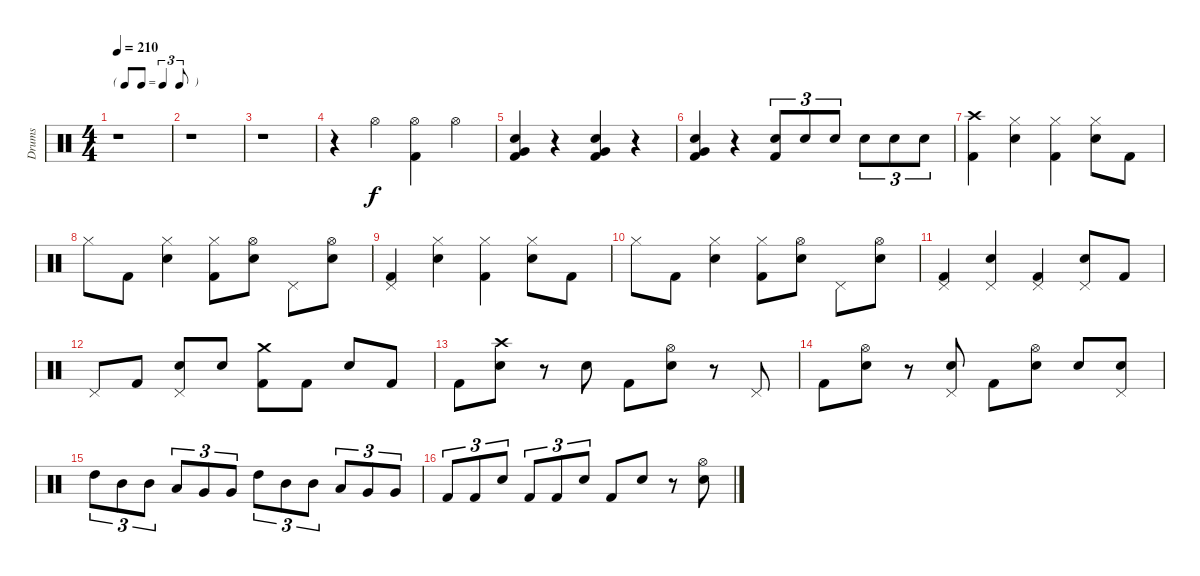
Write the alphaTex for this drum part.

\track ("Drums" "Drums") {instrument percussion}
\staff {score}
\articulation defaults
\ts (4 4)
\tf triplet8th
\tempo 210
\clef neutral
\ks c
r.1{dy f} |
r.1 |
r.1 |
r.4 "Hi-Hat (open)".4 ("Hi-Hat (open)" "Kick (hit) 2").4 "Hi-Hat (open)".4 |
("Snare (hit) 2" "Very Low Tom (hit)" "Kick (hit) 2").4 r.4 ("Snare (hit) 2" "Very Low Tom (hit)" "Kick (hit) 2").4 r.4 |
("Snare (hit) 2" "Very Low Tom (hit)" "Kick (hit) 2").4 r.4 ("Snare (hit) 2" "Kick (hit) 2").8{tu (3 2)} "Snare (hit) 2".8{tu (3 2)} "Snare (hit) 2".8{tu (3 2)} "Snare (hit) 2".8{tu (3 2)} "Snare (hit) 2".8{tu (3 2)} "Snare (hit) 2".8{tu (3 2)} |
("Crash high (hit)" "Kick (hit) 2").4 ("Hi-Hat (closed)" "Snare (hit) 2").4 ("Hi-Hat (closed)" "Kick (hit) 2").4 ("Hi-Hat (closed)" "Snare (hit) 2").8 "Kick (hit) 2".8 |
"Hi-Hat (closed)".8 "Kick (hit) 2".8 ("Hi-Hat (closed)" "Snare (hit) 2").4 ("Hi-Hat (closed)" "Kick (hit) 2").8 ("Hi-Hat (open)" "Snare (hit) 2").8 "Pedal Hi-Hat (hit)".8 ("Hi-Hat (open)" "Snare (hit) 2").8 |
("Pedal Hi-Hat (hit)" "Kick (hit) 2").4 ("Hi-Hat (closed)" "Snare (hit) 2").4 ("Hi-Hat (closed)" "Kick (hit) 2").4 ("Hi-Hat (closed)" "Snare (hit) 2").8 "Kick (hit) 2".8 |
"Hi-Hat (closed)".8 "Kick (hit) 2".8 ("Hi-Hat (closed)" "Snare (hit) 2").4 ("Hi-Hat (closed)" "Kick (hit) 2").8 ("Hi-Hat (open)" "Snare (hit) 2").8 "Pedal Hi-Hat (hit)".8 ("Hi-Hat (open)" "Snare (hit) 2").8 |
("Pedal Hi-Hat (hit)" "Kick (hit) 2").4 ("Pedal Hi-Hat (hit)" "Snare (hit) 2").4 ("Pedal Hi-Hat (hit)" "Kick (hit) 2").4 ("Pedal Hi-Hat (hit)" "Snare (hit) 2").8 "Kick (hit) 2".8 |
"Pedal Hi-Hat (hit)".8 "Kick (hit) 2".8 ("Pedal Hi-Hat (hit)" "Snare (hit) 2").8 "Snare (hit) 2".8 ("Crash medium (hit)" "Kick (hit) 2").8 "Kick (hit) 2".8 "Snare (hit) 2".8 "Kick (hit) 2".8 |
"Kick (hit) 2".8 ("Crash high (hit)" "Snare (hit) 2").8 r.8 "Snare (hit) 2".8 "Kick (hit) 2".8 ("Hi-Hat (open)" "Snare (hit) 2").8 r.8 "Pedal Hi-Hat (hit)".8 |
"Kick (hit) 2".8 ("Hi-Hat (open)" "Snare (hit) 2").8 r.8 ("Pedal Hi-Hat (hit)" "Snare (hit) 2").8 "Kick (hit) 2".8 ("Hi-Hat (open)" "Snare (hit) 2").8 "Snare (hit) 2".8 ("Pedal Hi-Hat (hit)" "Snare (hit) 2").8 |
"High Tom (hit)".8{tu (3 2)} "Mid Tom (hit)".8{tu (3 2)} "Mid Tom (hit)".8{tu (3 2)} "Low Tom (hit)".8{tu (3 2)} "Very Low Tom (hit)".8{tu (3 2)} "Very Low Tom (hit)".8{tu (3 2)} "High Tom (hit)".8{tu (3 2)} "Mid Tom (hit)".8{tu (3 2)} "Mid Tom (hit)".8{tu (3 2)} "Low Tom (hit)".8{tu (3 2)} "Very Low Tom (hit)".8{tu (3 2)} "Very Low Tom (hit)".8{tu (3 2)} |
"Kick (hit) 2".8{tu (3 2)} "Kick (hit) 2".8{tu (3 2)} "Snare (hit) 2".8{tu (3 2)} "Kick (hit) 2".8{tu (3 2)} "Kick (hit) 2".8{tu (3 2)} "Snare (hit) 2".8{tu (3 2)} "Kick (hit) 2".8 "Snare (hit) 2".8 r.8 ("Hi-Hat (open)" "Snare (hit) 2").8
